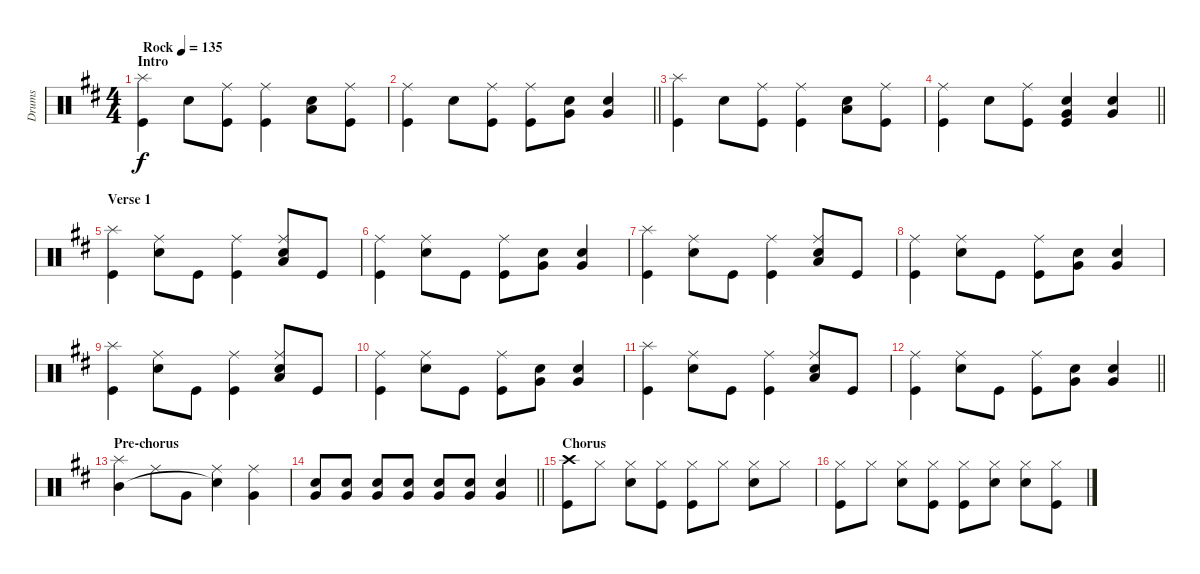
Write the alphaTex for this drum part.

\track ("Drums" "Drums") {instrument percussion}
\staff {score}
\articulation defaults
\ts (4 4)
\section ("" "Intro")
\tempo (135 "Rock")
\clef neutral
\ks d
("Splash (hit)" "Kick (hit)").4{dy f} "Snare (hit) 2".8 ("Ride (middle)" "Kick (hit)").8 ("Ride (middle)" "Kick (hit)").4 ("Low Tom (hit)" "Snare (hit) 2").8 ("Ride (middle)" "Kick (hit)").8 |
\barLineRight lightlight
("Ride (middle)" "Kick (hit)").4 "Snare (hit) 2".8 ("Ride (middle)" "Kick (hit)").8 ("Ride (middle)" "Kick (hit)").8 ("Very Low Tom (hit)" "Snare (hit) 2").8 ("Very Low Tom (hit)" "Snare (hit) 2").4 |
("Splash (hit)" "Kick (hit)").4 "Snare (hit) 2".8 ("Ride (middle)" "Kick (hit)").8 ("Ride (middle)" "Kick (hit)").4 ("Low Tom (hit)" "Snare (hit) 2").8 ("Ride (middle)" "Kick (hit)").8 |
\barLineRight lightlight
("Ride (middle)" "Kick (hit)").4 "Snare (hit) 2".8 ("Ride (middle)" "Kick (hit)").8 ("Very Low Tom (hit)" "Snare (hit) 2" "Kick (hit)").4 ("Very Low Tom (hit)" "Snare (hit) 2").4 |
\section ("" "Verse 1")
("Splash (hit)" "Kick (hit)").4 ("Ride (middle)" "Snare (hit) 2").8 "Kick (hit)".8 ("Ride (middle)" "Kick (hit)").4 ("Ride (middle)" "Low Tom (hit)" "Snare (hit) 2").8 "Kick (hit)".8 |
("Ride (middle)" "Kick (hit)").4 ("Ride (middle)" "Snare (hit) 2").8 "Kick (hit)".8 ("Ride (middle)" "Kick (hit)").8 ("Very Low Tom (hit)" "Snare (hit) 2").8 ("Very Low Tom (hit)" "Snare (hit) 2").4 |
("Splash (hit)" "Kick (hit)").4 ("Ride (middle)" "Snare (hit) 2").8 "Kick (hit)".8 ("Ride (middle)" "Kick (hit)").4 ("Ride (middle)" "Low Tom (hit)" "Snare (hit) 2").8 "Kick (hit)".8 |
("Ride (middle)" "Kick (hit)").4 ("Ride (middle)" "Snare (hit) 2").8 "Kick (hit)".8 ("Ride (middle)" "Kick (hit)").8 ("Very Low Tom (hit)" "Snare (hit) 2").8 ("Very Low Tom (hit)" "Snare (hit) 2").4 |
("Splash (hit)" "Kick (hit)").4 ("Ride (middle)" "Snare (hit) 2").8 "Kick (hit)".8 ("Ride (middle)" "Kick (hit)").4 ("Ride (middle)" "Low Tom (hit)" "Snare (hit) 2").8 "Kick (hit)".8 |
("Ride (middle)" "Kick (hit)").4 ("Ride (middle)" "Snare (hit) 2").8 "Kick (hit)".8 ("Ride (middle)" "Kick (hit)").8 ("Very Low Tom (hit)" "Snare (hit) 2").8 ("Very Low Tom (hit)" "Snare (hit) 2").4 |
("Splash (hit)" "Kick (hit)").4 ("Ride (middle)" "Snare (hit) 2").8 "Kick (hit)".8 ("Ride (middle)" "Kick (hit)").4 ("Ride (middle)" "Low Tom (hit)" "Snare (hit) 2").8 "Kick (hit)".8 |
\barLineRight lightlight
("Ride (middle)" "Kick (hit)").4 ("Ride (middle)" "Snare (hit) 2").8 "Kick (hit)".8 ("Ride (middle)" "Kick (hit)").8 ("Very Low Tom (hit)" "Snare (hit) 2").8 ("Very Low Tom (hit)" "Snare (hit) 2").4 |
\section ("" "Pre-chorus")
("Splash (hit)" "Mid Tom (hit)").4 "Ride (middle)".8 "Very Low Tom (hit)".8 ("Ride (middle)" "Snare (hit)"{t}).4 ("Ride (middle)" "Very Low Tom (hit)").4 |
\barLineRight lightlight
("Very Low Tom (hit)" "Snare (hit) 2").8 ("Very Low Tom (hit)" "Snare (hit) 2").8 ("Very Low Tom (hit)" "Snare (hit) 2").8 ("Very Low Tom (hit)" "Snare (hit) 2").8 ("Very Low Tom (hit)" "Snare (hit) 2").8 ("Very Low Tom (hit)" "Snare (hit) 2").8 ("Very Low Tom (hit)" "Snare (hit) 2").4 |
\section ("" "Chorus")
("Crash high (hit)" "Kick (hit)").8 "Hi-Hat (closed)".8 ("Hi-Hat (closed)" "Snare (hit) 2").8 ("Hi-Hat (closed)" "Kick (hit)").8 ("Hi-Hat (closed)" "Kick (hit)").8 "Hi-Hat (closed)".8 ("Hi-Hat (closed)" "Snare (hit) 2").8 "Hi-Hat (closed)".8 |
("Hi-Hat (closed)" "Kick (hit)").8 "Hi-Hat (closed)".8 ("Hi-Hat (closed)" "Snare (hit) 2").8 ("Hi-Hat (closed)" "Kick (hit)").8 ("Hi-Hat (closed)" "Kick (hit)").8 ("Hi-Hat (closed)" "Snare (hit) 2").8 ("Hi-Hat (closed)" "Snare (hit) 2").8 ("Hi-Hat (closed)" "Kick (hit)").8
